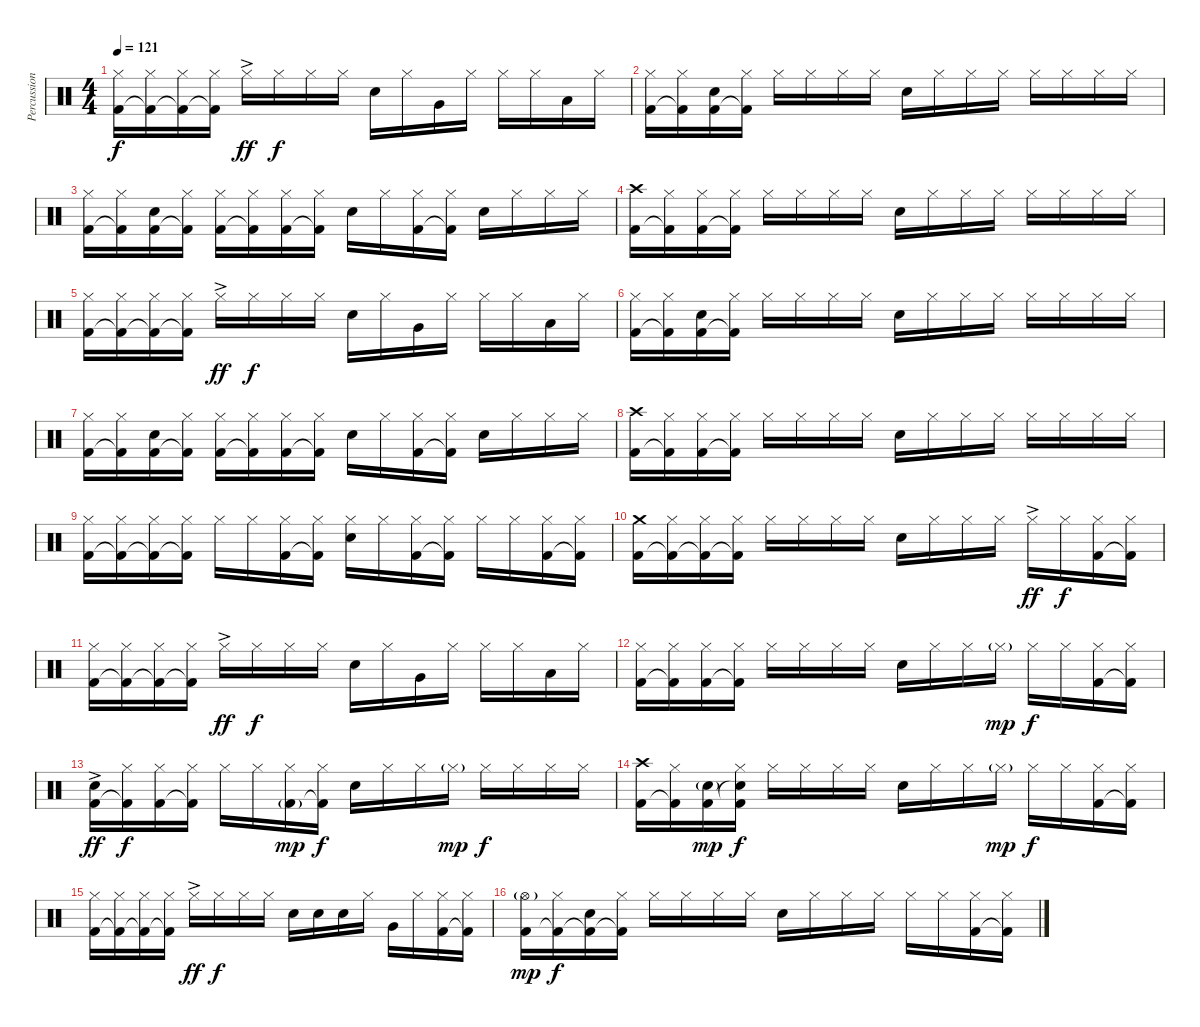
\track ("Percussioni" "Percussion") {instrument percussion}
\staff {score}
\articulation defaults
\ts (4 4)
\tempo 121
\clef neutral
\ks c
("Hi-Hat (closed)" "Kick (hit) 2").16{dy f} ("Hi-Hat (closed)" "Kick (hit) 2"{t}).16 ("Hi-Hat (closed)" "Kick (hit) 2"{t}).16 ("Hi-Hat (closed)" "Kick (hit) 2"{t}).16 "Hi-Hat (closed)"{ac}.16{dy ff} "Hi-Hat (closed)".16{dy f} "Hi-Hat (closed)".16 "Hi-Hat (closed)".16 "Snare (hit) 2".16 "Hi-Hat (closed)".16 "Very Low Tom (hit)".16 "Hi-Hat (closed)".16 "Hi-Hat (closed)".16 "Hi-Hat (closed)".16 "Low Tom (hit)".16 "Hi-Hat (closed)".16 |
("Hi-Hat (closed)" "Kick (hit) 2").16 ("Hi-Hat (closed)" "Kick (hit) 2"{t}).16 ("Snare (hit) 2" "Kick (hit) 2").16 ("Hi-Hat (closed)" "Kick (hit) 2"{t}).16 "Hi-Hat (closed)".16 "Hi-Hat (closed)".16 "Hi-Hat (closed)".16 "Hi-Hat (closed)".16 "Snare (hit) 2".16 "Hi-Hat (closed)".16 "Hi-Hat (closed)".16 "Hi-Hat (closed)".16 "Hi-Hat (closed)".16 "Hi-Hat (closed)".16 "Hi-Hat (closed)".16 "Hi-Hat (closed)".16 |
("Hi-Hat (closed)" "Kick (hit) 2").16 ("Hi-Hat (closed)" "Kick (hit) 2"{t}).16 ("Snare (hit) 2" "Kick (hit) 2").16 ("Hi-Hat (closed)" "Kick (hit) 2"{t}).16 ("Hi-Hat (closed)" "Kick (hit) 2").16 ("Hi-Hat (closed)" "Kick (hit) 2"{t}).16 ("Hi-Hat (closed)" "Kick (hit) 2").16 ("Hi-Hat (closed)" "Kick (hit) 2"{t}).16 "Snare (hit) 2".16 "Hi-Hat (closed)".16 ("Hi-Hat (closed)" "Kick (hit) 2").16 ("Hi-Hat (closed)" "Kick (hit) 2"{t}).16 "Snare (hit) 2".16 "Hi-Hat (closed)".16 "Hi-Hat (closed)".16 "Hi-Hat (closed)".16 |
("Crash high (hit)" "Kick (hit) 2").16 ("Hi-Hat (closed)" "Kick (hit) 2"{t}).16 ("Hi-Hat (closed)" "Kick (hit) 2").16 ("Hi-Hat (closed)" "Kick (hit) 2"{t}).16 "Hi-Hat (closed)".16 "Hi-Hat (closed)".16 "Hi-Hat (closed)".16 "Hi-Hat (closed)".16 "Snare (hit) 2".16 "Hi-Hat (closed)".16 "Hi-Hat (closed)".16 "Hi-Hat (closed)".16 "Hi-Hat (closed)".16 "Hi-Hat (closed)".16 "Hi-Hat (closed)".16 "Hi-Hat (closed)".16 |
("Hi-Hat (closed)" "Kick (hit) 2").16 ("Hi-Hat (closed)" "Kick (hit) 2"{t}).16 ("Hi-Hat (closed)" "Kick (hit) 2"{t}).16 ("Hi-Hat (closed)" "Kick (hit) 2"{t}).16 "Hi-Hat (closed)"{ac}.16{dy ff} "Hi-Hat (closed)".16{dy f} "Hi-Hat (closed)".16 "Hi-Hat (closed)".16 "Snare (hit) 2".16 "Hi-Hat (closed)".16 "Very Low Tom (hit)".16 "Hi-Hat (closed)".16 "Hi-Hat (closed)".16 "Hi-Hat (closed)".16 "Low Tom (hit)".16 "Hi-Hat (closed)".16 |
("Hi-Hat (closed)" "Kick (hit) 2").16 ("Hi-Hat (closed)" "Kick (hit) 2"{t}).16 ("Snare (hit) 2" "Kick (hit) 2").16 ("Hi-Hat (closed)" "Kick (hit) 2"{t}).16 "Hi-Hat (closed)".16 "Hi-Hat (closed)".16 "Hi-Hat (closed)".16 "Hi-Hat (closed)".16 "Snare (hit) 2".16 "Hi-Hat (closed)".16 "Hi-Hat (closed)".16 "Hi-Hat (closed)".16 "Hi-Hat (closed)".16 "Hi-Hat (closed)".16 "Hi-Hat (closed)".16 "Hi-Hat (closed)".16 |
("Hi-Hat (closed)" "Kick (hit) 2").16 ("Hi-Hat (closed)" "Kick (hit) 2"{t}).16 ("Snare (hit) 2" "Kick (hit) 2").16 ("Hi-Hat (closed)" "Kick (hit) 2"{t}).16 ("Hi-Hat (closed)" "Kick (hit) 2").16 ("Hi-Hat (closed)" "Kick (hit) 2"{t}).16 ("Hi-Hat (closed)" "Kick (hit) 2").16 ("Hi-Hat (closed)" "Kick (hit) 2"{t}).16 "Snare (hit) 2".16 "Hi-Hat (closed)".16 ("Hi-Hat (closed)" "Kick (hit) 2").16 ("Hi-Hat (closed)" "Kick (hit) 2"{t}).16 "Snare (hit) 2".16 "Hi-Hat (closed)".16 "Hi-Hat (closed)".16 "Hi-Hat (closed)".16 |
("Crash high (hit)" "Kick (hit) 2").16 ("Hi-Hat (closed)" "Kick (hit) 2"{t}).16 ("Hi-Hat (closed)" "Kick (hit) 2").16 ("Hi-Hat (closed)" "Kick (hit) 2"{t}).16 "Hi-Hat (closed)".16 "Hi-Hat (closed)".16 "Hi-Hat (closed)".16 "Hi-Hat (closed)".16 "Snare (hit) 2".16 "Hi-Hat (closed)".16 "Hi-Hat (closed)".16 "Hi-Hat (closed)".16 "Hi-Hat (closed)".16 "Hi-Hat (closed)".16 "Hi-Hat (closed)".16 "Hi-Hat (closed)".16 |
("Hi-Hat (closed)" "Kick (hit) 2").16 ("Hi-Hat (closed)" "Kick (hit) 2"{t}).16 ("Hi-Hat (closed)" "Kick (hit) 2"{t}).16 ("Hi-Hat (closed)" "Kick (hit) 2"{t}).16 "Hi-Hat (closed)".16 "Hi-Hat (closed)".16 ("Hi-Hat (closed)" "Kick (hit) 2").16 ("Hi-Hat (closed)" "Kick (hit) 2"{t}).16 ("Hi-Hat (closed)" "Snare (hit) 2").16 "Hi-Hat (closed)".16 ("Hi-Hat (closed)" "Kick (hit) 2").16 ("Hi-Hat (closed)" "Kick (hit) 2"{t}).16 "Hi-Hat (closed)".16 "Hi-Hat (closed)".16 ("Hi-Hat (closed)" "Kick (hit) 2").16 ("Hi-Hat (closed)" "Kick (hit) 2"{t}).16 |
("Crash medium (hit)" "Kick (hit) 2").16 ("Hi-Hat (closed)" "Kick (hit) 2"{t}).16 ("Hi-Hat (closed)" "Kick (hit) 2"{t}).16 ("Hi-Hat (closed)" "Kick (hit) 2"{t}).16 "Hi-Hat (closed)".16 "Hi-Hat (closed)".16 "Hi-Hat (closed)".16 "Hi-Hat (closed)".16 "Snare (hit) 2".16 "Hi-Hat (closed)".16 "Hi-Hat (closed)".16 "Hi-Hat (closed)".16 "Hi-Hat (closed)"{ac}.16{dy ff} "Hi-Hat (closed)".16{dy f} ("Hi-Hat (closed)" "Kick (hit) 2").16 ("Hi-Hat (closed)" "Kick (hit) 2"{t}).16 |
("Hi-Hat (closed)" "Kick (hit) 2").16 ("Hi-Hat (closed)" "Kick (hit) 2"{t}).16 ("Hi-Hat (closed)" "Kick (hit) 2"{t}).16 ("Hi-Hat (closed)" "Kick (hit) 2"{t}).16 "Hi-Hat (closed)"{ac}.16{dy ff} "Hi-Hat (closed)".16{dy f} "Hi-Hat (closed)".16 "Hi-Hat (closed)".16 "Snare (hit) 2".16 "Hi-Hat (closed)".16 "Very Low Tom (hit)".16 "Hi-Hat (closed)".16 "Hi-Hat (closed)".16 "Hi-Hat (closed)".16 "Low Tom (hit)".16 "Hi-Hat (closed)".16 |
("Hi-Hat (closed)" "Kick (hit) 2").16 ("Hi-Hat (closed)" "Kick (hit) 2"{t}).16 ("Hi-Hat (closed)" "Kick (hit) 2").16 ("Hi-Hat (closed)" "Kick (hit) 2"{t}).16 "Hi-Hat (closed)".16 "Hi-Hat (closed)".16 "Hi-Hat (closed)".16 "Hi-Hat (closed)".16 "Snare (hit) 2".16 "Hi-Hat (closed)".16 "Hi-Hat (closed)".16 "Hi-Hat (closed)"{g}.16{dy mp} "Hi-Hat (closed)".16{dy f} "Hi-Hat (closed)".16 ("Hi-Hat (closed)" "Kick (hit) 2").16 ("Hi-Hat (closed)" "Kick (hit) 2"{t}).16 |
("Snare (hit) 2"{ac} "Kick (hit) 2").16{dy ff} ("Hi-Hat (closed)" "Kick (hit) 2"{t}).16{dy f} ("Hi-Hat (closed)" "Kick (hit) 2").16 ("Hi-Hat (closed)" "Kick (hit) 2"{t}).16 "Hi-Hat (closed)".16 "Hi-Hat (closed)".16 ("Hi-Hat (closed)" "Kick (hit) 2"{g}).16{dy mp} ("Hi-Hat (closed)" "Kick (hit) 2"{t}).16{dy f} "Snare (hit) 2".16 "Hi-Hat (closed)".16 "Hi-Hat (closed)".16 "Hi-Hat (closed)"{g}.16{dy mp} "Hi-Hat (closed)".16{dy f} "Hi-Hat (closed)".16 "Hi-Hat (closed)".16 "Hi-Hat (closed)".16 |
("Crash high (hit)" "Kick (hit) 2").16 ("Hi-Hat (closed)" "Kick (hit) 2"{t}).16 ("Snare (hit) 2"{g} "Kick (hit) 2").16{dy mp} ("Hi-Hat (closed)" "Snare (hit) 2"{t} "Kick (hit) 2").16{dy f} "Hi-Hat (closed)".16 "Hi-Hat (closed)".16 "Hi-Hat (closed)".16 "Hi-Hat (closed)".16 "Snare (hit) 2".16 "Hi-Hat (closed)".16 "Hi-Hat (closed)".16 "Hi-Hat (closed)"{g}.16{dy mp} "Hi-Hat (closed)".16{dy f} "Hi-Hat (closed)".16 ("Hi-Hat (closed)" "Kick (hit) 2").16 ("Hi-Hat (closed)" "Kick (hit) 2"{t}).16 |
("Hi-Hat (closed)" "Kick (hit) 2").16 ("Hi-Hat (closed)" "Kick (hit) 2"{t}).16 ("Hi-Hat (closed)" "Kick (hit) 2"{t}).16 ("Hi-Hat (closed)" "Kick (hit) 2"{t}).16 "Hi-Hat (closed)"{ac}.16{dy ff} "Hi-Hat (closed)".16{dy f} "Hi-Hat (closed)".16 "Hi-Hat (closed)".16 "Snare (hit) 2".16 "Snare (hit) 2".16 "Snare (hit) 2".16 "Hi-Hat (closed)".16 "Very Low Tom (hit)".16 "Hi-Hat (closed)".16 ("Hi-Hat (closed)" "Kick (hit) 2").16 ("Hi-Hat (closed)" "Kick (hit) 2"{t}).16 |
("Hi-Hat (open)"{g} "Kick (hit) 2").16{dy mp} ("Hi-Hat (closed)" "Kick (hit) 2"{t}).16{dy f} ("Snare (hit) 2" "Kick (hit) 2"{t}).16 ("Hi-Hat (closed)" "Kick (hit) 2"{t}).16 "Hi-Hat (closed)".16 "Hi-Hat (closed)".16 "Hi-Hat (closed)".16 "Hi-Hat (closed)".16 "Snare (hit) 2".16 "Hi-Hat (closed)".16 "Hi-Hat (closed)".16 "Hi-Hat (closed)".16 "Hi-Hat (closed)".16 "Hi-Hat (closed)".16 ("Hi-Hat (closed)" "Kick (hit) 2").16 ("Hi-Hat (closed)" "Kick (hit) 2"{t}).16
